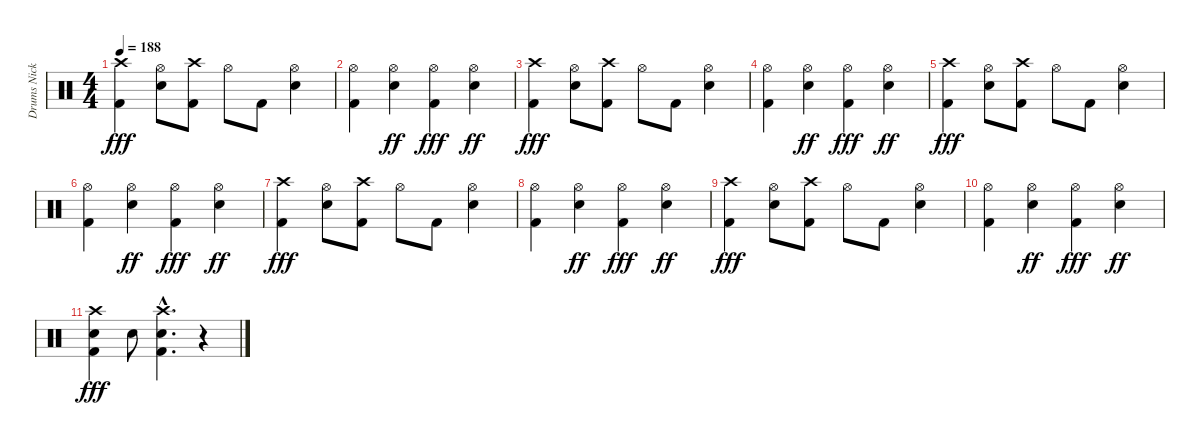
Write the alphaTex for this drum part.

\track ("Drums Nicko McBrain" "Drums Nick") {instrument percussion}
\staff {score}
\articulation defaults
\ts (4 4)
\tempo 188
\clef neutral
\ks c
("Crash high (hit)" "Kick (hit) 2").4{dy fff} ("Hi-Hat (open)" "Electric Snare (hit)").8 ("Crash high (hit)" "Kick (hit) 2").8 "Hi-Hat (open)".8 "Kick (hit) 2".8 ("Hi-Hat (open)" "Electric Snare (hit)").4 |
("Hi-Hat (open)" "Kick (hit) 2").4 ("Hi-Hat (open)" "Electric Snare (hit)").4{dy ff} ("Hi-Hat (open)" "Kick (hit) 2").4{dy fff} ("Hi-Hat (open)" "Electric Snare (hit)").4{dy ff} |
("Crash high (hit)" "Kick (hit) 2").4{dy fff} ("Hi-Hat (open)" "Electric Snare (hit)").8 ("Crash high (hit)" "Kick (hit) 2").8 "Hi-Hat (open)".8 "Kick (hit) 2".8 ("Hi-Hat (open)" "Electric Snare (hit)").4 |
("Hi-Hat (open)" "Kick (hit) 2").4 ("Hi-Hat (open)" "Electric Snare (hit)").4{dy ff} ("Hi-Hat (open)" "Kick (hit) 2").4{dy fff} ("Hi-Hat (open)" "Electric Snare (hit)").4{dy ff} |
("Crash high (hit)" "Kick (hit) 2").4{dy fff} ("Hi-Hat (open)" "Electric Snare (hit)").8 ("Crash high (hit)" "Kick (hit) 2").8 "Hi-Hat (open)".8 "Kick (hit) 2".8 ("Hi-Hat (open)" "Electric Snare (hit)").4 |
("Hi-Hat (open)" "Kick (hit) 2").4 ("Hi-Hat (open)" "Electric Snare (hit)").4{dy ff} ("Hi-Hat (open)" "Kick (hit) 2").4{dy fff} ("Hi-Hat (open)" "Electric Snare (hit)").4{dy ff} |
("Crash high (hit)" "Kick (hit) 2").4{dy fff} ("Hi-Hat (open)" "Electric Snare (hit)").8 ("Crash high (hit)" "Kick (hit) 2").8 "Hi-Hat (open)".8 "Kick (hit) 2".8 ("Hi-Hat (open)" "Electric Snare (hit)").4 |
("Hi-Hat (open)" "Kick (hit) 2").4 ("Hi-Hat (open)" "Electric Snare (hit)").4{dy ff} ("Hi-Hat (open)" "Kick (hit) 2").4{dy fff} ("Hi-Hat (open)" "Electric Snare (hit)").4{dy ff} |
("Crash high (hit)" "Kick (hit) 2").4{dy fff} ("Hi-Hat (open)" "Electric Snare (hit)").8 ("Crash high (hit)" "Kick (hit) 2").8 "Hi-Hat (open)".8 "Kick (hit) 2".8 ("Hi-Hat (open)" "Electric Snare (hit)").4 |
("Hi-Hat (open)" "Kick (hit) 2").4 ("Hi-Hat (open)" "Electric Snare (hit)").4{dy ff} ("Hi-Hat (open)" "Kick (hit) 2").4{dy fff} ("Hi-Hat (open)" "Electric Snare (hit)").4{dy ff} |
("Crash high (hit)" "Electric Snare (hit)" "Kick (hit) 2").4{dy fff} "Electric Snare (hit)".8 ("Crash high (hit)"{hac} "Electric Snare (hit)"{hac} "Kick (hit) 2"{hac}).4{d} r.4
